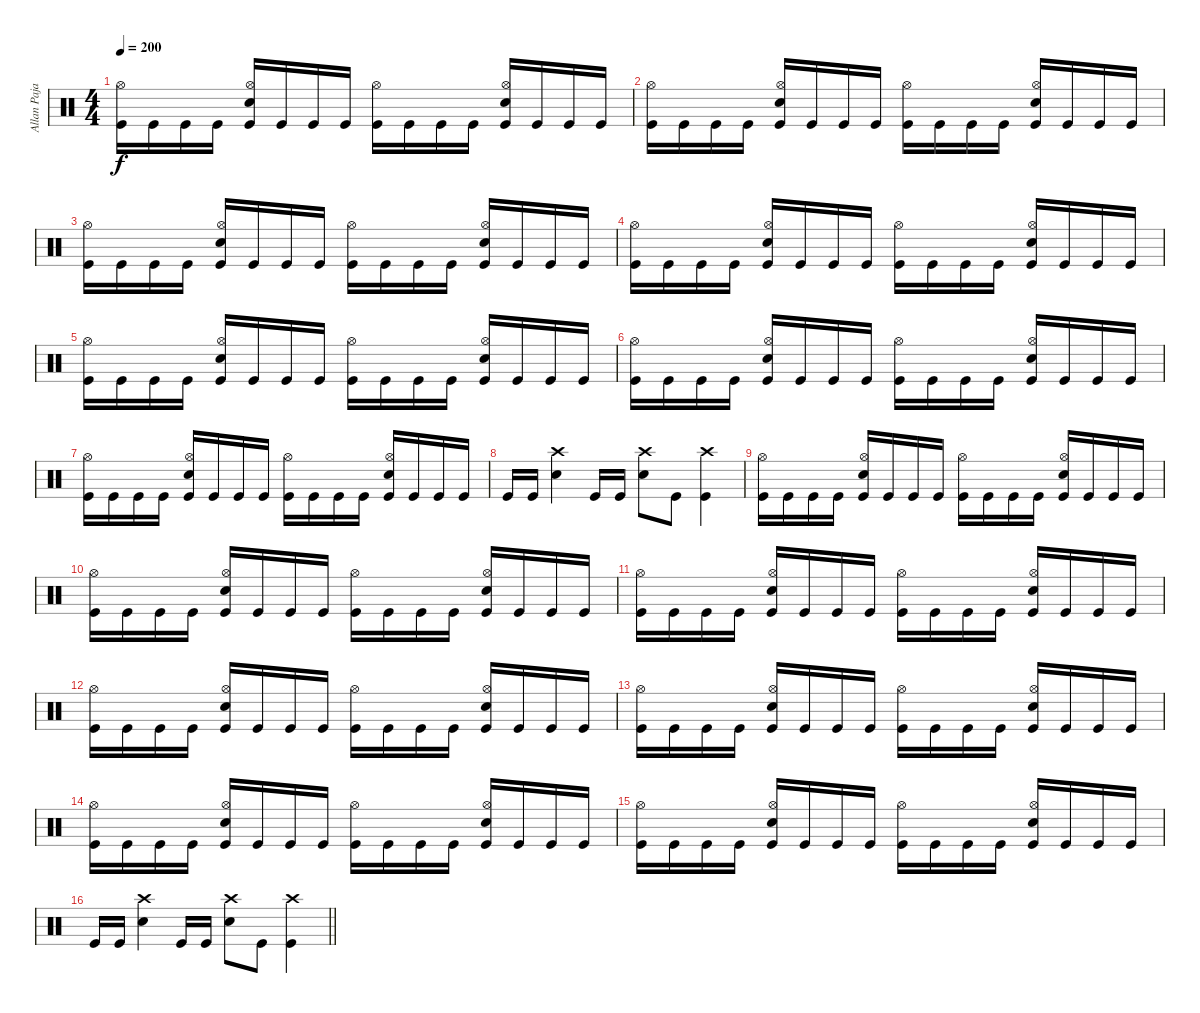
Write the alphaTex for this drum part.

\track ("Allan Pajarin (Drums)" "Allan Paja") {instrument percussion}
\staff {score}
\articulation defaults
\ts (4 4)
\tempo 200
\clef neutral
\ks c
("Kick (hit)" "Hi-Hat (open)").16{dy f} "Kick (hit)".16 "Kick (hit)".16 "Kick (hit)".16 ("Hi-Hat (open)" "Electric Snare (hit)" "Kick (hit)").16 "Kick (hit)".16 "Kick (hit)".16 "Kick (hit)".16 ("Hi-Hat (open)" "Kick (hit)").16 "Kick (hit)".16 "Kick (hit)".16 "Kick (hit)".16 ("Hi-Hat (open)" "Electric Snare (hit)" "Kick (hit)").16 "Kick (hit)".16 "Kick (hit)".16 "Kick (hit)".16 |
("Kick (hit)" "Hi-Hat (open)").16 "Kick (hit)".16 "Kick (hit)".16 "Kick (hit)".16 ("Hi-Hat (open)" "Electric Snare (hit)" "Kick (hit)").16 "Kick (hit)".16 "Kick (hit)".16 "Kick (hit)".16 ("Hi-Hat (open)" "Kick (hit)").16 "Kick (hit)".16 "Kick (hit)".16 "Kick (hit)".16 ("Hi-Hat (open)" "Electric Snare (hit)" "Kick (hit)").16 "Kick (hit)".16 "Kick (hit)".16 "Kick (hit)".16 |
("Kick (hit)" "Hi-Hat (open)").16 "Kick (hit)".16 "Kick (hit)".16 "Kick (hit)".16 ("Hi-Hat (open)" "Electric Snare (hit)" "Kick (hit)").16 "Kick (hit)".16 "Kick (hit)".16 "Kick (hit)".16 ("Hi-Hat (open)" "Kick (hit)").16 "Kick (hit)".16 "Kick (hit)".16 "Kick (hit)".16 ("Hi-Hat (open)" "Electric Snare (hit)" "Kick (hit)").16 "Kick (hit)".16 "Kick (hit)".16 "Kick (hit)".16 |
("Kick (hit)" "Hi-Hat (open)").16 "Kick (hit)".16 "Kick (hit)".16 "Kick (hit)".16 ("Hi-Hat (open)" "Electric Snare (hit)" "Kick (hit)").16 "Kick (hit)".16 "Kick (hit)".16 "Kick (hit)".16 ("Hi-Hat (open)" "Kick (hit)").16 "Kick (hit)".16 "Kick (hit)".16 "Kick (hit)".16 ("Hi-Hat (open)" "Electric Snare (hit)" "Kick (hit)").16 "Kick (hit)".16 "Kick (hit)".16 "Kick (hit)".16 |
("Kick (hit)" "Hi-Hat (open)").16 "Kick (hit)".16 "Kick (hit)".16 "Kick (hit)".16 ("Hi-Hat (open)" "Electric Snare (hit)" "Kick (hit)").16 "Kick (hit)".16 "Kick (hit)".16 "Kick (hit)".16 ("Hi-Hat (open)" "Kick (hit)").16 "Kick (hit)".16 "Kick (hit)".16 "Kick (hit)".16 ("Hi-Hat (open)" "Electric Snare (hit)" "Kick (hit)").16 "Kick (hit)".16 "Kick (hit)".16 "Kick (hit)".16 |
("Kick (hit)" "Hi-Hat (open)").16 "Kick (hit)".16 "Kick (hit)".16 "Kick (hit)".16 ("Hi-Hat (open)" "Electric Snare (hit)" "Kick (hit)").16 "Kick (hit)".16 "Kick (hit)".16 "Kick (hit)".16 ("Hi-Hat (open)" "Kick (hit)").16 "Kick (hit)".16 "Kick (hit)".16 "Kick (hit)".16 ("Hi-Hat (open)" "Electric Snare (hit)" "Kick (hit)").16 "Kick (hit)".16 "Kick (hit)".16 "Kick (hit)".16 |
("Kick (hit)" "Hi-Hat (open)").16 "Kick (hit)".16 "Kick (hit)".16 "Kick (hit)".16 ("Hi-Hat (open)" "Electric Snare (hit)" "Kick (hit)").16 "Kick (hit)".16 "Kick (hit)".16 "Kick (hit)".16 ("Hi-Hat (open)" "Kick (hit)").16 "Kick (hit)".16 "Kick (hit)".16 "Kick (hit)".16 ("Hi-Hat (open)" "Electric Snare (hit)" "Kick (hit)").16 "Kick (hit)".16 "Kick (hit)".16 "Kick (hit)".16 |
"Kick (hit)".16 "Kick (hit)".16 ("Crash high (hit)" "Electric Snare (hit)").4 "Kick (hit)".16 "Kick (hit)".16 ("Crash high (hit)" "Electric Snare (hit)").8 "Kick (hit)".8 ("Crash high (hit)" "Kick (hit)").4 |
("Kick (hit)" "Hi-Hat (open)").16 "Kick (hit)".16 "Kick (hit)".16 "Kick (hit)".16 ("Hi-Hat (open)" "Electric Snare (hit)" "Kick (hit)").16 "Kick (hit)".16 "Kick (hit)".16 "Kick (hit)".16 ("Hi-Hat (open)" "Kick (hit)").16 "Kick (hit)".16 "Kick (hit)".16 "Kick (hit)".16 ("Hi-Hat (open)" "Electric Snare (hit)" "Kick (hit)").16 "Kick (hit)".16 "Kick (hit)".16 "Kick (hit)".16 |
("Kick (hit)" "Hi-Hat (open)").16 "Kick (hit)".16 "Kick (hit)".16 "Kick (hit)".16 ("Hi-Hat (open)" "Electric Snare (hit)" "Kick (hit)").16 "Kick (hit)".16 "Kick (hit)".16 "Kick (hit)".16 ("Hi-Hat (open)" "Kick (hit)").16 "Kick (hit)".16 "Kick (hit)".16 "Kick (hit)".16 ("Hi-Hat (open)" "Electric Snare (hit)" "Kick (hit)").16 "Kick (hit)".16 "Kick (hit)".16 "Kick (hit)".16 |
("Kick (hit)" "Hi-Hat (open)").16 "Kick (hit)".16 "Kick (hit)".16 "Kick (hit)".16 ("Hi-Hat (open)" "Electric Snare (hit)" "Kick (hit)").16 "Kick (hit)".16 "Kick (hit)".16 "Kick (hit)".16 ("Hi-Hat (open)" "Kick (hit)").16 "Kick (hit)".16 "Kick (hit)".16 "Kick (hit)".16 ("Hi-Hat (open)" "Electric Snare (hit)" "Kick (hit)").16 "Kick (hit)".16 "Kick (hit)".16 "Kick (hit)".16 |
("Kick (hit)" "Hi-Hat (open)").16 "Kick (hit)".16 "Kick (hit)".16 "Kick (hit)".16 ("Hi-Hat (open)" "Electric Snare (hit)" "Kick (hit)").16 "Kick (hit)".16 "Kick (hit)".16 "Kick (hit)".16 ("Hi-Hat (open)" "Kick (hit)").16 "Kick (hit)".16 "Kick (hit)".16 "Kick (hit)".16 ("Hi-Hat (open)" "Electric Snare (hit)" "Kick (hit)").16 "Kick (hit)".16 "Kick (hit)".16 "Kick (hit)".16 |
("Kick (hit)" "Hi-Hat (open)").16 "Kick (hit)".16 "Kick (hit)".16 "Kick (hit)".16 ("Hi-Hat (open)" "Electric Snare (hit)" "Kick (hit)").16 "Kick (hit)".16 "Kick (hit)".16 "Kick (hit)".16 ("Hi-Hat (open)" "Kick (hit)").16 "Kick (hit)".16 "Kick (hit)".16 "Kick (hit)".16 ("Hi-Hat (open)" "Electric Snare (hit)" "Kick (hit)").16 "Kick (hit)".16 "Kick (hit)".16 "Kick (hit)".16 |
("Kick (hit)" "Hi-Hat (open)").16 "Kick (hit)".16 "Kick (hit)".16 "Kick (hit)".16 ("Hi-Hat (open)" "Electric Snare (hit)" "Kick (hit)").16 "Kick (hit)".16 "Kick (hit)".16 "Kick (hit)".16 ("Hi-Hat (open)" "Kick (hit)").16 "Kick (hit)".16 "Kick (hit)".16 "Kick (hit)".16 ("Hi-Hat (open)" "Electric Snare (hit)" "Kick (hit)").16 "Kick (hit)".16 "Kick (hit)".16 "Kick (hit)".16 |
("Kick (hit)" "Hi-Hat (open)").16 "Kick (hit)".16 "Kick (hit)".16 "Kick (hit)".16 ("Hi-Hat (open)" "Electric Snare (hit)" "Kick (hit)").16 "Kick (hit)".16 "Kick (hit)".16 "Kick (hit)".16 ("Hi-Hat (open)" "Kick (hit)").16 "Kick (hit)".16 "Kick (hit)".16 "Kick (hit)".16 ("Hi-Hat (open)" "Electric Snare (hit)" "Kick (hit)").16 "Kick (hit)".16 "Kick (hit)".16 "Kick (hit)".16 |
\barLineRight lightlight "Kick (hit)".16 "Kick (hit)".16
("Crash high (hit)" "Electric Snare (hit)").4 "Kick (hit)".16 "Kick (hit)".16 ("Crash high (hit)" "Electric Snare (hit)").8 "Kick (hit)".8 ("Crash high (hit)" "Kick (hit)").4
